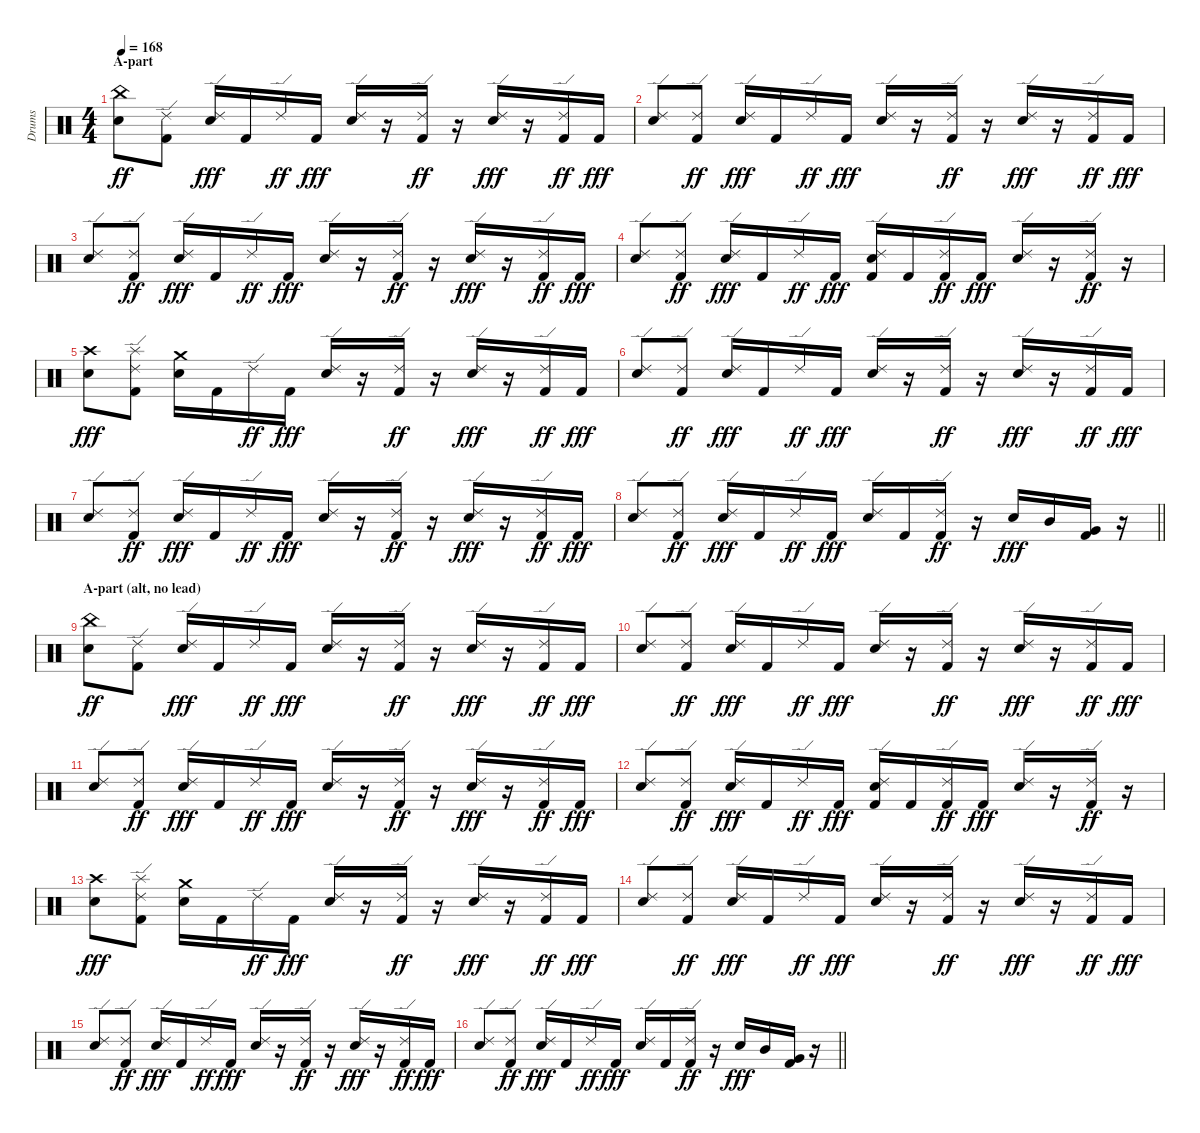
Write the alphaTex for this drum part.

\track ("Drums" "Drums") {instrument percussion}
\staff {score}
\articulation defaults
\ts (4 4)
\section ("" "A-part")
\tempo 168
\clef neutral
\ks c
("Snare (hit) 2" "China (hit)").8{dy ff} ("Kick (hit) 2" "Ride (edge) 2").8 ("Snare (hit) 2" "Ride (edge) 2").16{dy fff} "Kick (hit) 2".16 "Ride (edge) 2".16{dy ff} "Kick (hit) 2".16{dy fff} ("Snare (hit) 2" "Ride (edge) 2").16 r.16 ("Kick (hit) 2" "Ride (edge) 2").16{dy ff} r.16 ("Snare (hit) 2" "Ride (edge) 2").16{dy fff} r.16 ("Kick (hit) 2" "Ride (edge) 2").16{dy ff} "Kick (hit) 2".16{dy fff} |
("Snare (hit) 2" "Ride (edge) 2").8 ("Kick (hit) 2" "Ride (edge) 2").8{dy ff} ("Snare (hit) 2" "Ride (edge) 2").16{dy fff} "Kick (hit) 2".16 "Ride (edge) 2".16{dy ff} "Kick (hit) 2".16{dy fff} ("Snare (hit) 2" "Ride (edge) 2").16 r.16 ("Kick (hit) 2" "Ride (edge) 2").16{dy ff} r.16 ("Snare (hit) 2" "Ride (edge) 2").16{dy fff} r.16 ("Kick (hit) 2" "Ride (edge) 2").16{dy ff} "Kick (hit) 2".16{dy fff} |
("Snare (hit) 2" "Ride (edge) 2").8 ("Kick (hit) 2" "Ride (edge) 2").8{dy ff} ("Snare (hit) 2" "Ride (edge) 2").16{dy fff} "Kick (hit) 2".16 "Ride (edge) 2".16{dy ff} "Kick (hit) 2".16{dy fff} ("Snare (hit) 2" "Ride (edge) 2").16 r.16 ("Kick (hit) 2" "Ride (edge) 2").16{dy ff} r.16 ("Snare (hit) 2" "Ride (edge) 2").16{dy fff} r.16 ("Kick (hit) 2" "Ride (edge) 2").16{dy ff} "Kick (hit) 2".16{dy fff} |
("Snare (hit) 2" "Ride (edge) 2").8 ("Kick (hit) 2" "Ride (edge) 2").8{dy ff} ("Snare (hit) 2" "Ride (edge) 2").16{dy fff} "Kick (hit) 2".16 "Ride (edge) 2".16{dy ff} "Kick (hit) 2".16{dy fff} ("Kick (hit) 2" "Snare (hit) 2" "Ride (edge) 2").16 "Kick (hit) 2".16 ("Kick (hit) 2" "Ride (edge) 2").16{dy ff} "Kick (hit) 2".16{dy fff} ("Snare (hit) 2" "Ride (edge) 2").16 r.16 ("Kick (hit) 2" "Ride (edge) 2").16{dy ff} r.16 |
("Snare (hit) 2" "Crash high (hit)").8{dy fff} ("Kick (hit) 2" "Ride (edge) 2" "Splash (hit)").8 ("Snare (hit) 2" "Crash medium (hit)").16 "Kick (hit) 2".16 "Ride (edge) 2".16{dy ff} "Kick (hit) 2".16{dy fff} ("Snare (hit) 2" "Ride (edge) 2").16 r.16 ("Kick (hit) 2" "Ride (edge) 2").16{dy ff} r.16 ("Snare (hit) 2" "Ride (edge) 2").16{dy fff} r.16 ("Kick (hit) 2" "Ride (edge) 2").16{dy ff} "Kick (hit) 2".16{dy fff} |
("Snare (hit) 2" "Ride (edge) 2").8 ("Kick (hit) 2" "Ride (edge) 2").8{dy ff} ("Snare (hit) 2" "Ride (edge) 2").16{dy fff} "Kick (hit) 2".16 "Ride (edge) 2".16{dy ff} "Kick (hit) 2".16{dy fff} ("Snare (hit) 2" "Ride (edge) 2").16 r.16 ("Kick (hit) 2" "Ride (edge) 2").16{dy ff} r.16 ("Snare (hit) 2" "Ride (edge) 2").16{dy fff} r.16 ("Kick (hit) 2" "Ride (edge) 2").16{dy ff} "Kick (hit) 2".16{dy fff} |
("Snare (hit) 2" "Ride (edge) 2").8 ("Kick (hit) 2" "Ride (edge) 2").8{dy ff} ("Snare (hit) 2" "Ride (edge) 2").16{dy fff} "Kick (hit) 2".16 "Ride (edge) 2".16{dy ff} "Kick (hit) 2".16{dy fff} ("Snare (hit) 2" "Ride (edge) 2").16 r.16 ("Kick (hit) 2" "Ride (edge) 2").16{dy ff} r.16 ("Snare (hit) 2" "Ride (edge) 2").16{dy fff} r.16 ("Kick (hit) 2" "Ride (edge) 2").16{dy ff} "Kick (hit) 2".16{dy fff} |
\barLineRight lightlight
("Snare (hit) 2" "Ride (edge) 2").8 ("Kick (hit) 2" "Ride (edge) 2").8{dy ff} ("Snare (hit) 2" "Ride (edge) 2").16{dy fff} "Kick (hit) 2".16 "Ride (edge) 2".16{dy ff} "Kick (hit) 2".16{dy fff} ("Snare (hit) 2" "Ride (edge) 2").16 "Kick (hit) 2".16 ("Kick (hit) 2" "Ride (edge) 2").16{dy ff} r.16 "Snare (hit) 2".16{dy fff} "Mid Tom (hit)".16 ("Kick (hit) 2" "Very Low Tom (hit)").16 r.16 |
\section ("" "A-part (alt, no lead)")
("Snare (hit) 2" "China (hit)").8{dy ff} ("Kick (hit) 2" "Ride (edge) 2").8 ("Snare (hit) 2" "Ride (edge) 2").16{dy fff} "Kick (hit) 2".16 "Ride (edge) 2".16{dy ff} "Kick (hit) 2".16{dy fff} ("Snare (hit) 2" "Ride (edge) 2").16 r.16 ("Kick (hit) 2" "Ride (edge) 2").16{dy ff} r.16 ("Snare (hit) 2" "Ride (edge) 2").16{dy fff} r.16 ("Kick (hit) 2" "Ride (edge) 2").16{dy ff} "Kick (hit) 2".16{dy fff} |
("Snare (hit) 2" "Ride (edge) 2").8 ("Kick (hit) 2" "Ride (edge) 2").8{dy ff} ("Snare (hit) 2" "Ride (edge) 2").16{dy fff} "Kick (hit) 2".16 "Ride (edge) 2".16{dy ff} "Kick (hit) 2".16{dy fff} ("Snare (hit) 2" "Ride (edge) 2").16 r.16 ("Kick (hit) 2" "Ride (edge) 2").16{dy ff} r.16 ("Snare (hit) 2" "Ride (edge) 2").16{dy fff} r.16 ("Kick (hit) 2" "Ride (edge) 2").16{dy ff} "Kick (hit) 2".16{dy fff} |
("Snare (hit) 2" "Ride (edge) 2").8 ("Kick (hit) 2" "Ride (edge) 2").8{dy ff} ("Snare (hit) 2" "Ride (edge) 2").16{dy fff} "Kick (hit) 2".16 "Ride (edge) 2".16{dy ff} "Kick (hit) 2".16{dy fff} ("Snare (hit) 2" "Ride (edge) 2").16 r.16 ("Kick (hit) 2" "Ride (edge) 2").16{dy ff} r.16 ("Snare (hit) 2" "Ride (edge) 2").16{dy fff} r.16 ("Kick (hit) 2" "Ride (edge) 2").16{dy ff} "Kick (hit) 2".16{dy fff} |
("Snare (hit) 2" "Ride (edge) 2").8 ("Kick (hit) 2" "Ride (edge) 2").8{dy ff} ("Snare (hit) 2" "Ride (edge) 2").16{dy fff} "Kick (hit) 2".16 "Ride (edge) 2".16{dy ff} "Kick (hit) 2".16{dy fff} ("Kick (hit) 2" "Snare (hit) 2" "Ride (edge) 2").16 "Kick (hit) 2".16 ("Kick (hit) 2" "Ride (edge) 2").16{dy ff} "Kick (hit) 2".16{dy fff} ("Snare (hit) 2" "Ride (edge) 2").16 r.16 ("Kick (hit) 2" "Ride (edge) 2").16{dy ff} r.16 |
("Snare (hit) 2" "Crash high (hit)").8{dy fff} ("Kick (hit) 2" "Ride (edge) 2" "Splash (hit)").8 ("Snare (hit) 2" "Crash medium (hit)").16 "Kick (hit) 2".16 "Ride (edge) 2".16{dy ff} "Kick (hit) 2".16{dy fff} ("Snare (hit) 2" "Ride (edge) 2").16 r.16 ("Kick (hit) 2" "Ride (edge) 2").16{dy ff} r.16 ("Snare (hit) 2" "Ride (edge) 2").16{dy fff} r.16 ("Kick (hit) 2" "Ride (edge) 2").16{dy ff} "Kick (hit) 2".16{dy fff} |
("Snare (hit) 2" "Ride (edge) 2").8 ("Kick (hit) 2" "Ride (edge) 2").8{dy ff} ("Snare (hit) 2" "Ride (edge) 2").16{dy fff} "Kick (hit) 2".16 "Ride (edge) 2".16{dy ff} "Kick (hit) 2".16{dy fff} ("Snare (hit) 2" "Ride (edge) 2").16 r.16 ("Kick (hit) 2" "Ride (edge) 2").16{dy ff} r.16 ("Snare (hit) 2" "Ride (edge) 2").16{dy fff} r.16 ("Kick (hit) 2" "Ride (edge) 2").16{dy ff} "Kick (hit) 2".16{dy fff} |
("Snare (hit) 2" "Ride (edge) 2").8 ("Kick (hit) 2" "Ride (edge) 2").8{dy ff} ("Snare (hit) 2" "Ride (edge) 2").16{dy fff} "Kick (hit) 2".16 "Ride (edge) 2".16{dy ff} "Kick (hit) 2".16{dy fff} ("Snare (hit) 2" "Ride (edge) 2").16 r.16 ("Kick (hit) 2" "Ride (edge) 2").16{dy ff} r.16 ("Snare (hit) 2" "Ride (edge) 2").16{dy fff} r.16 ("Kick (hit) 2" "Ride (edge) 2").16{dy ff} "Kick (hit) 2".16{dy fff} |
\barLineRight lightlight
("Snare (hit) 2" "Ride (edge) 2").8 ("Kick (hit) 2" "Ride (edge) 2").8{dy ff} ("Snare (hit) 2" "Ride (edge) 2").16{dy fff} "Kick (hit) 2".16 "Ride (edge) 2".16{dy ff} "Kick (hit) 2".16{dy fff} ("Snare (hit) 2" "Ride (edge) 2").16 "Kick (hit) 2".16 ("Kick (hit) 2" "Ride (edge) 2").16{dy ff} r.16 "Snare (hit) 2".16{dy fff} "Mid Tom (hit)".16 ("Kick (hit) 2" "Very Low Tom (hit)").16 r.16
